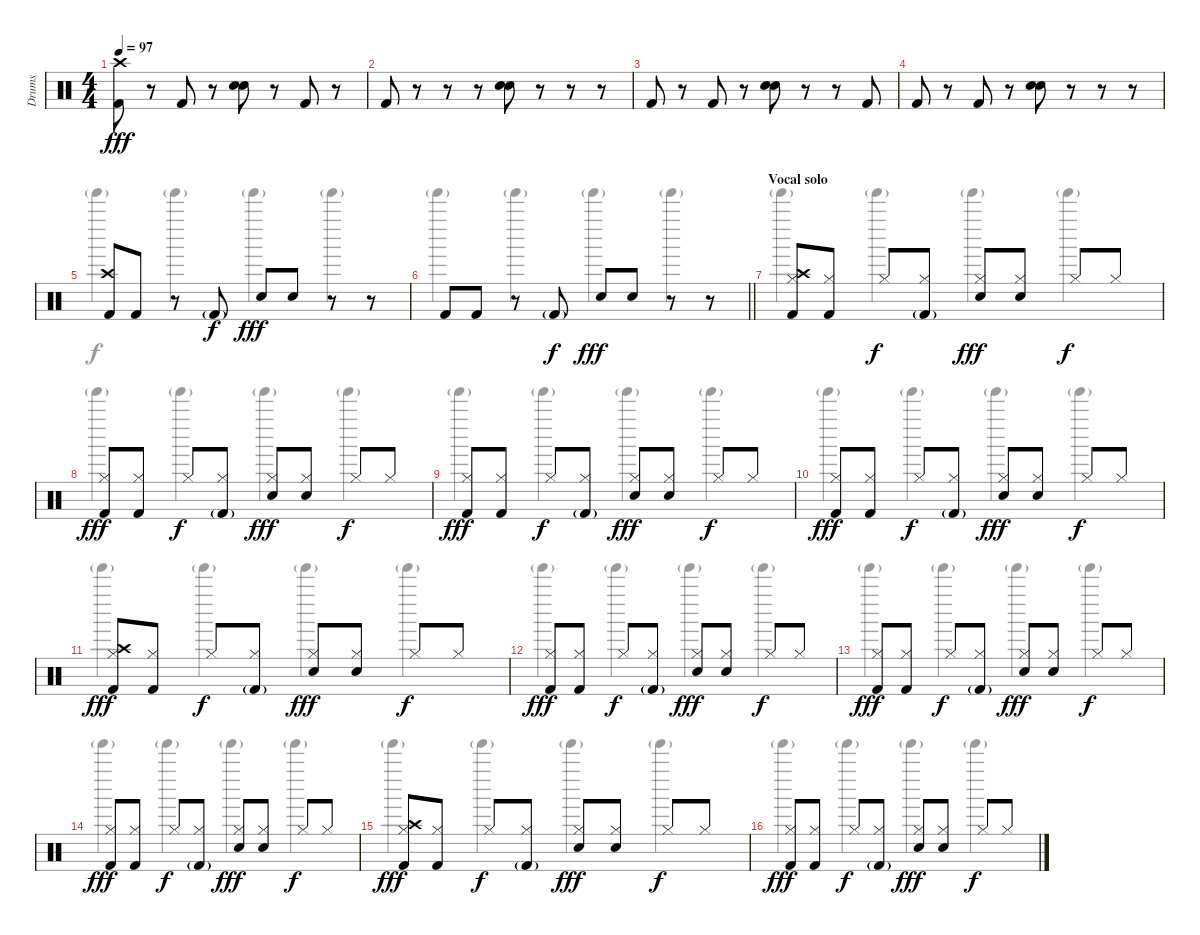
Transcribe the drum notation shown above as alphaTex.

\track ("Drums" "Drums") {instrument percussion}
\staff {score}
\articulation defaults
\voice
\ts (4 4)
\tempo 97
\clef neutral
\ks c
("Crash high (hit)" "Kick (hit) 2").8{dy fff} r.8 "Kick (hit) 2".8 r.8 ("Electric Snare (hit)" "Electric Snare (hit)").8 r.8 "Kick (hit) 2".8 r.8 |
"Kick (hit) 2".8 r.8 r.8 r.8 ("Electric Snare (hit)" "Electric Snare (hit)").8 r.8 r.8 r.8 |
"Kick (hit) 2".8 r.8 "Kick (hit) 2".8 r.8 ("Electric Snare (hit)" "Electric Snare (hit)").8 r.8 r.8 "Kick (hit) 2".8 |
"Kick (hit) 2".8 r.8 "Kick (hit) 2".8 r.8 ("Electric Snare (hit)" "Electric Snare (hit)").8 r.8 r.8 r.8 |
("Crash high (hit)" "Kick (hit) 2").8 "Kick (hit) 2".8 r.8 "Kick (hit) 2"{g}.8{dy f} "Electric Snare (hit)".8{dy fff} "Electric Snare (hit)".8 r.8 r.8 |
\barLineRight lightlight "Kick (hit) 2".8 "Kick (hit) 2".8
r.8 "Kick (hit) 2"{g}.8{dy f} "Electric Snare (hit)".8{dy fff} "Electric Snare (hit)".8 r.8 r.8 |
\section ("" "Vocal solo")
("Crash high (hit)" "Hi-Hat (closed)" "Kick (hit) 2").8 ("Hi-Hat (closed)" "Kick (hit) 2").8 "Hi-Hat (closed)".8{dy f} ("Hi-Hat (closed)" "Kick (hit) 2"{g}).8 ("Hi-Hat (closed)" "Electric Snare (hit)").8{dy fff} ("Hi-Hat (closed)" "Electric Snare (hit)").8 "Hi-Hat (closed)".8{dy f} "Hi-Hat (closed)".8 |
("Hi-Hat (closed)" "Kick (hit) 2").8{dy fff} ("Hi-Hat (closed)" "Kick (hit) 2").8 "Hi-Hat (closed)".8{dy f} ("Hi-Hat (closed)" "Kick (hit) 2"{g}).8 ("Hi-Hat (closed)" "Electric Snare (hit)").8{dy fff} ("Hi-Hat (closed)" "Electric Snare (hit)").8 "Hi-Hat (closed)".8{dy f} "Hi-Hat (closed)".8 |
("Hi-Hat (closed)" "Kick (hit) 2").8{dy fff} ("Hi-Hat (closed)" "Kick (hit) 2").8 "Hi-Hat (closed)".8{dy f} ("Hi-Hat (closed)" "Kick (hit) 2"{g}).8 ("Hi-Hat (closed)" "Electric Snare (hit)").8{dy fff} ("Hi-Hat (closed)" "Electric Snare (hit)").8 "Hi-Hat (closed)".8{dy f} "Hi-Hat (closed)".8 |
("Hi-Hat (closed)" "Kick (hit) 2").8{dy fff} ("Hi-Hat (closed)" "Kick (hit) 2").8 "Hi-Hat (closed)".8{dy f} ("Hi-Hat (closed)" "Kick (hit) 2"{g}).8 ("Hi-Hat (closed)" "Electric Snare (hit)").8{dy fff} ("Hi-Hat (closed)" "Electric Snare (hit)").8 "Hi-Hat (closed)".8{dy f} "Hi-Hat (closed)".8 |
("Crash high (hit)" "Hi-Hat (closed)" "Kick (hit) 2").8{dy fff} ("Hi-Hat (closed)" "Kick (hit) 2").8 "Hi-Hat (closed)".8{dy f} ("Hi-Hat (closed)" "Kick (hit) 2"{g}).8 ("Hi-Hat (closed)" "Electric Snare (hit)").8{dy fff} ("Hi-Hat (closed)" "Electric Snare (hit)").8 "Hi-Hat (closed)".8{dy f} "Hi-Hat (closed)".8 |
("Hi-Hat (closed)" "Kick (hit) 2").8{dy fff} ("Hi-Hat (closed)" "Kick (hit) 2").8 "Hi-Hat (closed)".8{dy f} ("Hi-Hat (closed)" "Kick (hit) 2"{g}).8 ("Hi-Hat (closed)" "Electric Snare (hit)").8{dy fff} ("Hi-Hat (closed)" "Electric Snare (hit)").8 "Hi-Hat (closed)".8{dy f} "Hi-Hat (closed)".8 |
("Hi-Hat (closed)" "Kick (hit) 2").8{dy fff} ("Hi-Hat (closed)" "Kick (hit) 2").8 "Hi-Hat (closed)".8{dy f} ("Hi-Hat (closed)" "Kick (hit) 2"{g}).8 ("Hi-Hat (closed)" "Electric Snare (hit)").8{dy fff} ("Hi-Hat (closed)" "Electric Snare (hit)").8 "Hi-Hat (closed)".8{dy f} "Hi-Hat (closed)".8 |
("Hi-Hat (closed)" "Kick (hit) 2").8{dy fff} ("Hi-Hat (closed)" "Kick (hit) 2").8 "Hi-Hat (closed)".8{dy f} ("Hi-Hat (closed)" "Kick (hit) 2"{g}).8 ("Hi-Hat (closed)" "Electric Snare (hit)").8{dy fff} ("Hi-Hat (closed)" "Electric Snare (hit)").8 "Hi-Hat (closed)".8{dy f} "Hi-Hat (closed)".8 |
("Crash high (hit)" "Hi-Hat (closed)" "Kick (hit) 2").8{dy fff} ("Hi-Hat (closed)" "Kick (hit) 2").8 "Hi-Hat (closed)".8{dy f} ("Hi-Hat (closed)" "Kick (hit) 2"{g}).8 ("Hi-Hat (closed)" "Electric Snare (hit)").8{dy fff} ("Hi-Hat (closed)" "Electric Snare (hit)").8 "Hi-Hat (closed)".8{dy f} "Hi-Hat (closed)".8 |
("Hi-Hat (closed)" "Kick (hit) 2").8{dy fff} ("Hi-Hat (closed)" "Kick (hit) 2").8 "Hi-Hat (closed)".8{dy f} ("Hi-Hat (closed)" "Kick (hit) 2"{g}).8 ("Hi-Hat (closed)" "Electric Snare (hit)").8{dy fff} ("Hi-Hat (closed)" "Electric Snare (hit)").8 "Hi-Hat (closed)".8{dy f} "Hi-Hat (closed)".8
\voice
\clef neutral
\ottava regular
\simile none
\ks c
|
|
|
|
"Tinkle Bell (hit)"{g}.4 "Tinkle Bell (hit)"{g}.4 "Tinkle Bell (hit)"{g}.4 "Tinkle Bell (hit)"{g}.4 |
\barLineRight lightlight "Tinkle Bell (hit)"{g}.4 "Tinkle Bell (hit)"{g}.4 "Tinkle Bell (hit)"{g}.4 "Tinkle Bell (hit)"{g}.4
|
"Tinkle Bell (hit)"{g}.4 "Tinkle Bell (hit)"{g}.4 "Tinkle Bell (hit)"{g}.4 "Tinkle Bell (hit)"{g}.4 |
"Tinkle Bell (hit)"{g}.4 "Tinkle Bell (hit)"{g}.4 "Tinkle Bell (hit)"{g}.4 "Tinkle Bell (hit)"{g}.4 |
"Tinkle Bell (hit)"{g}.4 "Tinkle Bell (hit)"{g}.4 "Tinkle Bell (hit)"{g}.4 "Tinkle Bell (hit)"{g}.4 |
"Tinkle Bell (hit)"{g}.4 "Tinkle Bell (hit)"{g}.4 "Tinkle Bell (hit)"{g}.4 "Tinkle Bell (hit)"{g}.4 |
"Tinkle Bell (hit)"{g}.4 "Tinkle Bell (hit)"{g}.4 "Tinkle Bell (hit)"{g}.4 "Tinkle Bell (hit)"{g}.4 |
"Tinkle Bell (hit)"{g}.4 "Tinkle Bell (hit)"{g}.4 "Tinkle Bell (hit)"{g}.4 "Tinkle Bell (hit)"{g}.4 |
"Tinkle Bell (hit)"{g}.4 "Tinkle Bell (hit)"{g}.4 "Tinkle Bell (hit)"{g}.4 "Tinkle Bell (hit)"{g}.4 |
"Tinkle Bell (hit)"{g}.4 "Tinkle Bell (hit)"{g}.4 "Tinkle Bell (hit)"{g}.4 "Tinkle Bell (hit)"{g}.4 |
"Tinkle Bell (hit)"{g}.4 "Tinkle Bell (hit)"{g}.4 "Tinkle Bell (hit)"{g}.4 "Tinkle Bell (hit)"{g}.4 |
"Tinkle Bell (hit)"{g}.4 "Tinkle Bell (hit)"{g}.4 "Tinkle Bell (hit)"{g}.4 "Tinkle Bell (hit)"{g}.4
